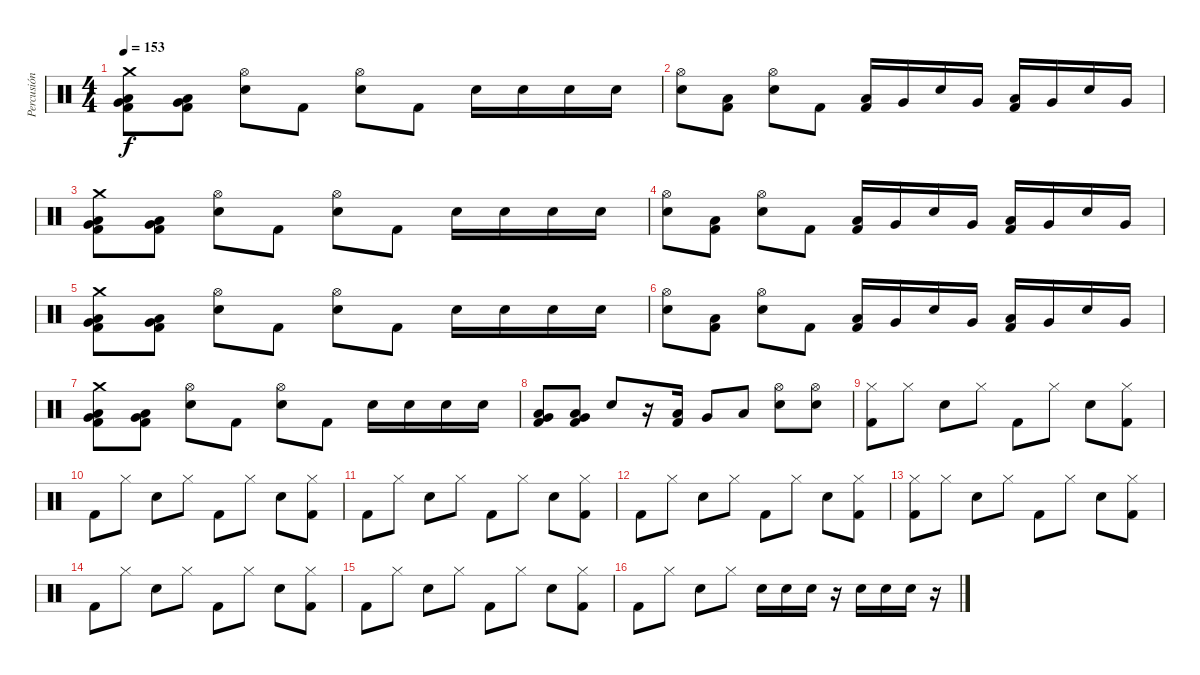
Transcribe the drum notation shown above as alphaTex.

\track ("Percusión" "Percusión") {instrument percussion}
\staff {score}
\articulation defaults
\ts (4 4)
\tempo 153
\clef neutral
\ks c
("Crash medium (hit)" "Kick (hit) 2" "Low Floor Tom (hit)" "Very Low Tom (hit)").8{dy f} ("Kick (hit) 2" "Low Floor Tom (hit)" "Very Low Tom (hit)").8 ("Hi-Hat (open)" "Electric Snare (hit)").8 "Kick (hit) 2".8 ("Hi-Hat (open)" "Electric Snare (hit)").8 "Kick (hit) 2".8 "Electric Snare (hit)".16 "Electric Snare (hit)".16 "Electric Snare (hit)".16 "Electric Snare (hit)".16 |
("Hi-Hat (open)" "Electric Snare (hit)").8 ("Low Floor Tom (hit)" "Kick (hit) 2").8 ("Hi-Hat (open)" "Electric Snare (hit)").8 "Kick (hit) 2".8 ("Low Floor Tom (hit)" "Kick (hit) 2").16 "Very Low Tom (hit)".16 "Electric Snare (hit)".16 "Very Low Tom (hit)".16 ("Low Floor Tom (hit)" "Kick (hit) 2").16 "Very Low Tom (hit)".16 "Electric Snare (hit)".16 "Very Low Tom (hit)".16 |
("Crash medium (hit)" "Kick (hit) 2" "Low Floor Tom (hit)" "Very Low Tom (hit)").8 ("Kick (hit) 2" "Low Floor Tom (hit)" "Very Low Tom (hit)").8 ("Hi-Hat (open)" "Electric Snare (hit)").8 "Kick (hit) 2".8 ("Hi-Hat (open)" "Electric Snare (hit)").8 "Kick (hit) 2".8 "Electric Snare (hit)".16 "Electric Snare (hit)".16 "Electric Snare (hit)".16 "Electric Snare (hit)".16 |
("Hi-Hat (open)" "Electric Snare (hit)").8 ("Low Floor Tom (hit)" "Kick (hit) 2").8 ("Hi-Hat (open)" "Electric Snare (hit)").8 "Kick (hit) 2".8 ("Low Floor Tom (hit)" "Kick (hit) 2").16 "Very Low Tom (hit)".16 "Electric Snare (hit)".16 "Very Low Tom (hit)".16 ("Low Floor Tom (hit)" "Kick (hit) 2").16 "Very Low Tom (hit)".16 "Electric Snare (hit)".16 "Very Low Tom (hit)".16 |
("Crash medium (hit)" "Kick (hit) 2" "Low Floor Tom (hit)" "Very Low Tom (hit)").8 ("Kick (hit) 2" "Low Floor Tom (hit)" "Very Low Tom (hit)").8 ("Hi-Hat (open)" "Electric Snare (hit)").8 "Kick (hit) 2".8 ("Hi-Hat (open)" "Electric Snare (hit)").8 "Kick (hit) 2".8 "Electric Snare (hit)".16 "Electric Snare (hit)".16 "Electric Snare (hit)".16 "Electric Snare (hit)".16 |
("Hi-Hat (open)" "Electric Snare (hit)").8 ("Low Floor Tom (hit)" "Kick (hit) 2").8 ("Hi-Hat (open)" "Electric Snare (hit)").8 "Kick (hit) 2".8 ("Low Floor Tom (hit)" "Kick (hit) 2").16 "Very Low Tom (hit)".16 "Electric Snare (hit)".16 "Very Low Tom (hit)".16 ("Low Floor Tom (hit)" "Kick (hit) 2").16 "Very Low Tom (hit)".16 "Electric Snare (hit)".16 "Very Low Tom (hit)".16 |
("Crash medium (hit)" "Kick (hit) 2" "Low Floor Tom (hit)" "Very Low Tom (hit)").8 ("Kick (hit) 2" "Low Floor Tom (hit)" "Very Low Tom (hit)").8 ("Hi-Hat (open)" "Electric Snare (hit)").8 "Kick (hit) 2".8 ("Hi-Hat (open)" "Electric Snare (hit)").8 "Kick (hit) 2".8 "Electric Snare (hit)".16 "Electric Snare (hit)".16 "Electric Snare (hit)".16 "Electric Snare (hit)".16 |
("Kick (hit) 2" "Low Floor Tom (hit)" "Very Low Tom (hit)").8 ("Kick (hit) 2" "Low Floor Tom (hit)" "Very Low Tom (hit)").8 "Electric Snare (hit)".8 r.16 ("Low Floor Tom (hit)" "Kick (hit) 2").16 "Very Low Tom (hit)".8 "Low Floor Tom (hit)".8 ("Hi-Hat (open)" "Electric Snare (hit)").8 ("Hi-Hat (open)" "Electric Snare (hit)").8 |
("Hi-Hat (closed)" "Kick (hit) 2").8 "Hi-Hat (closed)".8 "Electric Snare (hit)".8 "Hi-Hat (closed)".8 "Kick (hit) 2".8 "Hi-Hat (closed)".8 "Electric Snare (hit)".8 ("Hi-Hat (closed)" "Kick (hit) 2").8 |
"Kick (hit) 2".8 "Hi-Hat (closed)".8 "Electric Snare (hit)".8 "Hi-Hat (closed)".8 "Kick (hit) 2".8 "Hi-Hat (closed)".8 "Electric Snare (hit)".8 ("Hi-Hat (closed)" "Kick (hit) 2").8 |
"Kick (hit) 2".8 "Hi-Hat (closed)".8 "Electric Snare (hit)".8 "Hi-Hat (closed)".8 "Kick (hit) 2".8 "Hi-Hat (closed)".8 "Electric Snare (hit)".8 ("Hi-Hat (closed)" "Kick (hit) 2").8 |
"Kick (hit) 2".8 "Hi-Hat (closed)".8 "Electric Snare (hit)".8 "Hi-Hat (closed)".8 "Kick (hit) 2".8 "Hi-Hat (closed)".8 "Electric Snare (hit)".8 ("Hi-Hat (closed)" "Kick (hit) 2").8 |
("Hi-Hat (closed)" "Kick (hit) 2").8 "Hi-Hat (closed)".8 "Electric Snare (hit)".8 "Hi-Hat (closed)".8 "Kick (hit) 2".8 "Hi-Hat (closed)".8 "Electric Snare (hit)".8 ("Hi-Hat (closed)" "Kick (hit) 2").8 |
"Kick (hit) 2".8 "Hi-Hat (closed)".8 "Electric Snare (hit)".8 "Hi-Hat (closed)".8 "Kick (hit) 2".8 "Hi-Hat (closed)".8 "Electric Snare (hit)".8 ("Hi-Hat (closed)" "Kick (hit) 2").8 |
"Kick (hit) 2".8 "Hi-Hat (closed)".8 "Electric Snare (hit)".8 "Hi-Hat (closed)".8 "Kick (hit) 2".8 "Hi-Hat (closed)".8 "Electric Snare (hit)".8 ("Hi-Hat (closed)" "Kick (hit) 2").8 |
"Kick (hit) 2".8 "Hi-Hat (closed)".8 "Electric Snare (hit)".8 "Hi-Hat (closed)".8 "Electric Snare (hit)".16 "Electric Snare (hit)".16 "Electric Snare (hit)".16 r.16 "Electric Snare (hit)".16 "Electric Snare (hit)".16 "Electric Snare (hit)".16 r.16
